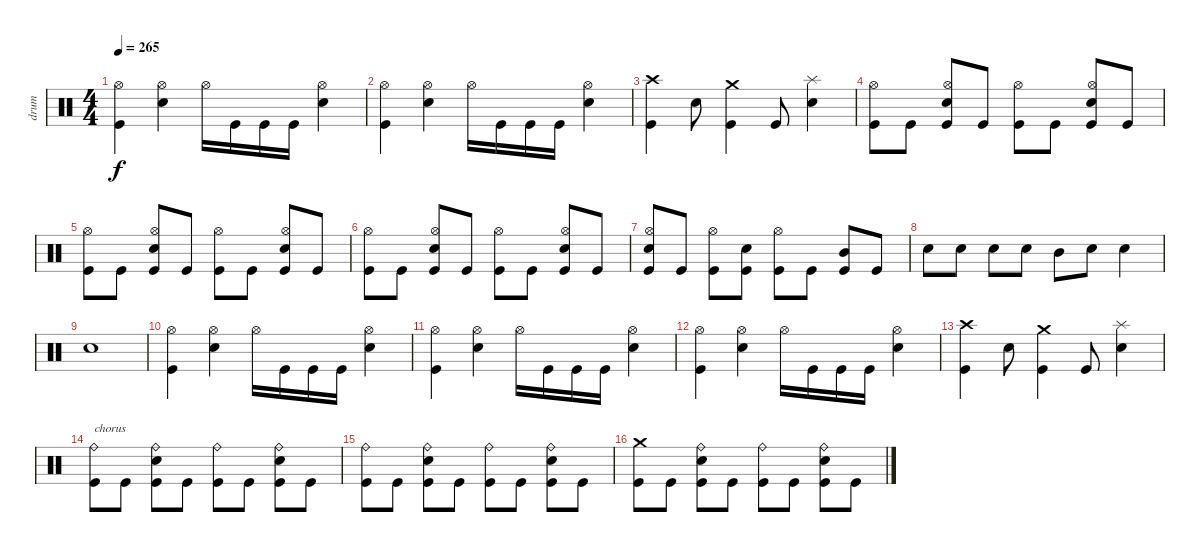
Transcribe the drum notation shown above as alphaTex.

\track ("drum" "drum") {instrument percussion}
\staff {score}
\articulation defaults
\ts (4 4)
\tempo 265
\clef neutral
\ks c
("Kick (hit)" "Hi-Hat (open)").4{dy f} ("Electric Snare (hit)" "Hi-Hat (open)").4 "Hi-Hat (open)".16 "Kick (hit)".16 "Kick (hit)".16 "Kick (hit)".16 ("Electric Snare (hit)" "Hi-Hat (open)").4 |
("Kick (hit)" "Hi-Hat (open)").4 ("Electric Snare (hit)" "Hi-Hat (open)").4 "Hi-Hat (open)".16 "Kick (hit)".16 "Kick (hit)".16 "Kick (hit)".16 ("Electric Snare (hit)" "Hi-Hat (open)").4 |
("Kick (hit)" "Crash high (hit)").4 "Electric Snare (hit)".8 ("Kick (hit)" "Crash medium (hit)").4 "Kick (hit)".8 ("Electric Snare (hit)" "Splash (hit)").4 |
("Kick (hit)" "Hi-Hat (open)").8 "Kick (hit)".8 ("Kick (hit)" "Electric Snare (hit)" "Hi-Hat (open)").8 "Kick (hit)".8 ("Kick (hit)" "Hi-Hat (open)").8 "Kick (hit)".8 ("Kick (hit)" "Electric Snare (hit)" "Hi-Hat (open)").8 "Kick (hit)".8 |
("Kick (hit)" "Hi-Hat (open)").8 "Kick (hit)".8 ("Kick (hit)" "Electric Snare (hit)" "Hi-Hat (open)").8 "Kick (hit)".8 ("Kick (hit)" "Hi-Hat (open)").8 "Kick (hit)".8 ("Kick (hit)" "Electric Snare (hit)" "Hi-Hat (open)").8 "Kick (hit)".8 |
("Kick (hit)" "Hi-Hat (open)").8 "Kick (hit)".8 ("Kick (hit)" "Electric Snare (hit)" "Hi-Hat (open)").8 "Kick (hit)".8 ("Kick (hit)" "Hi-Hat (open)").8 "Kick (hit)".8 ("Kick (hit)" "Electric Snare (hit)" "Hi-Hat (open)").8 "Kick (hit)".8 |
("Kick (hit)" "Electric Snare (hit)" "Hi-Hat (open)").8 "Kick (hit)".8 ("Kick (hit)" "Hi-Hat (open)").8 ("Kick (hit)" "Electric Snare (hit)").8 ("Kick (hit)" "Hi-Hat (open)").8 "Kick (hit)".8 ("Kick (hit)" "Mid Tom (hit)").8 "Kick (hit)".8 |
"Electric Snare (hit)".8 "Electric Snare (hit)".8 "Electric Snare (hit)".8 "Electric Snare (hit)".8 "Mid Tom (hit)".8 "Electric Snare (hit)".8 "Electric Snare (hit)".4 |
"Electric Snare (hit)".1 |
("Kick (hit)" "Hi-Hat (open)").4 ("Electric Snare (hit)" "Hi-Hat (open)").4 "Hi-Hat (open)".16 "Kick (hit)".16 "Kick (hit)".16 "Kick (hit)".16 ("Electric Snare (hit)" "Hi-Hat (open)").4 |
("Kick (hit)" "Hi-Hat (open)").4 ("Electric Snare (hit)" "Hi-Hat (open)").4 "Hi-Hat (open)".16 "Kick (hit)".16 "Kick (hit)".16 "Kick (hit)".16 ("Electric Snare (hit)" "Hi-Hat (open)").4 |
("Kick (hit)" "Hi-Hat (open)").4 ("Electric Snare (hit)" "Hi-Hat (open)").4 "Hi-Hat (open)".16 "Kick (hit)".16 "Kick (hit)".16 "Kick (hit)".16 ("Electric Snare (hit)" "Hi-Hat (open)").4 |
("Kick (hit)" "Crash high (hit)").4 "Electric Snare (hit)".8 ("Kick (hit)" "Crash medium (hit)").4 "Kick (hit)".8 ("Electric Snare (hit)" "Splash (hit)").4 |
("Kick (hit)" "Ride (bell)").8{txt "chorus"} "Kick (hit)".8 ("Kick (hit)" "Electric Snare (hit)" "Ride (bell)").8 "Kick (hit)".8 ("Kick (hit)" "Ride (bell)").8 "Kick (hit)".8 ("Kick (hit)" "Electric Snare (hit)" "Ride (bell)").8 "Kick (hit)".8 |
("Kick (hit)" "Ride (bell)").8 "Kick (hit)".8 ("Kick (hit)" "Electric Snare (hit)" "Ride (bell)").8 "Kick (hit)".8 ("Kick (hit)" "Ride (bell)").8 "Kick (hit)".8 ("Kick (hit)" "Electric Snare (hit)" "Ride (bell)").8 "Kick (hit)".8 |
("Kick (hit)" "Crash medium (hit)").8 "Kick (hit)".8 ("Kick (hit)" "Electric Snare (hit)" "Ride (bell)").8 "Kick (hit)".8 ("Kick (hit)" "Ride (bell)").8 "Kick (hit)".8 ("Kick (hit)" "Electric Snare (hit)" "Ride (bell)").8 "Kick (hit)".8
